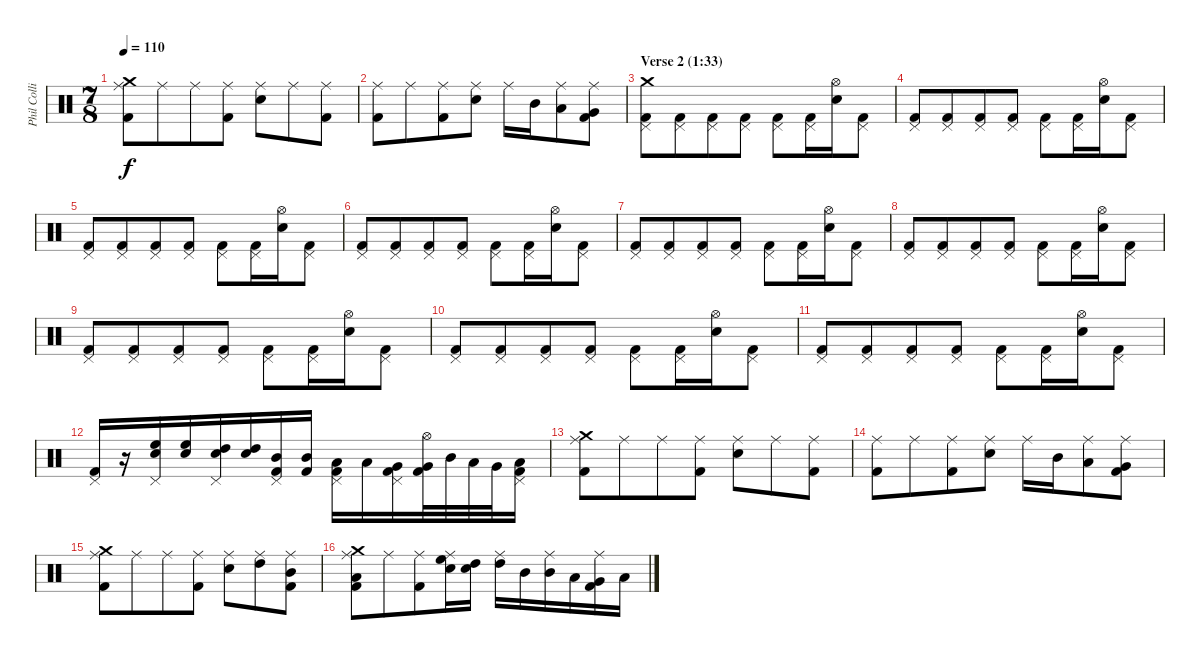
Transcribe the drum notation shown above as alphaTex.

\track ("Phil Collins (drums)" "Phil Colli") {instrument percussion}
\staff {score}
\articulation defaults
\ts (7 8)
\tempo 110
\clef neutral
\ks c
("Ride (middle)" "Crash medium (hit)" "Kick (hit) 2").8{dy f} "Ride (middle)".8 "Ride (middle)".8 ("Ride (middle)" "Kick (hit) 2").8 ("Ride (middle)" "Electric Snare (hit)").8 "Ride (middle)".8 ("Ride (middle)" "Kick (hit) 2").8 |
("Ride (middle)" "Kick (hit) 2").8 "Ride (middle)".8 ("Ride (middle)" "Kick (hit) 2").8 ("Ride (middle)" "Electric Snare (hit)").8 "Ride (middle)".16 "Mid Tom (hit)".16 ("Ride (middle)" "Low Tom (hit)").8 ("Ride (middle)" "Very Low Tom (hit)" "Kick (hit) 2").8 |
\section ("" "Verse 2 (1:33)")
("Crash medium (hit)" "Pedal Hi-Hat (hit)" "Kick (hit) 2").8 ("Pedal Hi-Hat (hit)" "Kick (hit) 2").8 ("Pedal Hi-Hat (hit)" "Kick (hit) 2").8 ("Pedal Hi-Hat (hit)" "Kick (hit) 2").8 ("Pedal Hi-Hat (hit)" "Kick (hit) 2").8 ("Pedal Hi-Hat (hit)" "Kick (hit) 2").16 ("Hi-Hat (open)" "Electric Snare (hit)").16 ("Pedal Hi-Hat (hit)" "Kick (hit) 2").8 |
("Pedal Hi-Hat (hit)" "Kick (hit) 2").8 ("Pedal Hi-Hat (hit)" "Kick (hit) 2").8 ("Pedal Hi-Hat (hit)" "Kick (hit) 2").8 ("Pedal Hi-Hat (hit)" "Kick (hit) 2").8 ("Pedal Hi-Hat (hit)" "Kick (hit) 2").8 ("Pedal Hi-Hat (hit)" "Kick (hit) 2").16 ("Hi-Hat (open)" "Electric Snare (hit)").16 ("Pedal Hi-Hat (hit)" "Kick (hit) 2").8 |
("Pedal Hi-Hat (hit)" "Kick (hit) 2").8 ("Pedal Hi-Hat (hit)" "Kick (hit) 2").8 ("Pedal Hi-Hat (hit)" "Kick (hit) 2").8 ("Pedal Hi-Hat (hit)" "Kick (hit) 2").8 ("Pedal Hi-Hat (hit)" "Kick (hit) 2").8 ("Pedal Hi-Hat (hit)" "Kick (hit) 2").16 ("Hi-Hat (open)" "Electric Snare (hit)").16 ("Pedal Hi-Hat (hit)" "Kick (hit) 2").8 |
("Pedal Hi-Hat (hit)" "Kick (hit) 2").8 ("Pedal Hi-Hat (hit)" "Kick (hit) 2").8 ("Pedal Hi-Hat (hit)" "Kick (hit) 2").8 ("Pedal Hi-Hat (hit)" "Kick (hit) 2").8 ("Pedal Hi-Hat (hit)" "Kick (hit) 2").8 ("Pedal Hi-Hat (hit)" "Kick (hit) 2").16 ("Hi-Hat (open)" "Electric Snare (hit)").16 ("Pedal Hi-Hat (hit)" "Kick (hit) 2").8 |
("Pedal Hi-Hat (hit)" "Kick (hit) 2").8 ("Pedal Hi-Hat (hit)" "Kick (hit) 2").8 ("Pedal Hi-Hat (hit)" "Kick (hit) 2").8 ("Pedal Hi-Hat (hit)" "Kick (hit) 2").8 ("Pedal Hi-Hat (hit)" "Kick (hit) 2").8 ("Pedal Hi-Hat (hit)" "Kick (hit) 2").16 ("Hi-Hat (open)" "Electric Snare (hit)").16 ("Pedal Hi-Hat (hit)" "Kick (hit) 2").8 |
("Pedal Hi-Hat (hit)" "Kick (hit) 2").8 ("Pedal Hi-Hat (hit)" "Kick (hit) 2").8 ("Pedal Hi-Hat (hit)" "Kick (hit) 2").8 ("Pedal Hi-Hat (hit)" "Kick (hit) 2").8 ("Pedal Hi-Hat (hit)" "Kick (hit) 2").8 ("Pedal Hi-Hat (hit)" "Kick (hit) 2").16 ("Hi-Hat (open)" "Electric Snare (hit)").16 ("Pedal Hi-Hat (hit)" "Kick (hit) 2").8 |
("Pedal Hi-Hat (hit)" "Kick (hit) 2").8 ("Pedal Hi-Hat (hit)" "Kick (hit) 2").8 ("Pedal Hi-Hat (hit)" "Kick (hit) 2").8 ("Pedal Hi-Hat (hit)" "Kick (hit) 2").8 ("Pedal Hi-Hat (hit)" "Kick (hit) 2").8 ("Pedal Hi-Hat (hit)" "Kick (hit) 2").16 ("Hi-Hat (open)" "Electric Snare (hit)").16 ("Pedal Hi-Hat (hit)" "Kick (hit) 2").8 |
("Pedal Hi-Hat (hit)" "Kick (hit) 2").8 ("Pedal Hi-Hat (hit)" "Kick (hit) 2").8 ("Pedal Hi-Hat (hit)" "Kick (hit) 2").8 ("Pedal Hi-Hat (hit)" "Kick (hit) 2").8 ("Pedal Hi-Hat (hit)" "Kick (hit) 2").8 ("Pedal Hi-Hat (hit)" "Kick (hit) 2").16 ("Hi-Hat (open)" "Electric Snare (hit)").16 ("Pedal Hi-Hat (hit)" "Kick (hit) 2").8 |
("Pedal Hi-Hat (hit)" "Kick (hit) 2").8 ("Pedal Hi-Hat (hit)" "Kick (hit) 2").8 ("Pedal Hi-Hat (hit)" "Kick (hit) 2").8 ("Pedal Hi-Hat (hit)" "Kick (hit) 2").8 ("Pedal Hi-Hat (hit)" "Kick (hit) 2").8 ("Pedal Hi-Hat (hit)" "Kick (hit) 2").16 ("Hi-Hat (open)" "Electric Snare (hit)").16 ("Pedal Hi-Hat (hit)" "Kick (hit) 2").8 |
("Pedal Hi-Hat (hit)" "Kick (hit) 2").16 r.16 ("High Floor Tom (hit)" "Pedal Hi-Hat (hit)" "Electric Snare (hit)").16 ("High Floor Tom (hit)" "Electric Snare (hit)").16 ("High Tom (hit)" "Pedal Hi-Hat (hit)" "Electric Snare (hit)").16 ("High Tom (hit)" "Electric Snare (hit)").16 ("Mid Tom (hit)" "Pedal Hi-Hat (hit)" "Kick (hit) 2").16 ("Mid Tom (hit)" "Kick (hit) 2").16 ("Low Tom (hit)" "Pedal Hi-Hat (hit)" "Kick (hit) 2").16 "Low Tom (hit)".16 ("Very Low Tom (hit)" "Pedal Hi-Hat (hit)" "Kick (hit) 2").16 ("Very Low Tom (hit)" "Hi-Hat (open)" "Kick (hit) 2").32 "Mid Tom (hit)".32 "Low Tom (hit)".32 "Very Low Tom (hit)".32 ("Low Floor Tom (hit)" "Pedal Hi-Hat (hit)" "Kick (hit) 2").16 |
("Ride (middle)" "Crash medium (hit)" "Kick (hit) 2").8 "Ride (middle)".8 "Ride (middle)".8 ("Ride (middle)" "Kick (hit) 2").8 ("Ride (middle)" "Electric Snare (hit)").8 "Ride (middle)".8 ("Ride (middle)" "Kick (hit) 2").8 |
("Ride (middle)" "Kick (hit) 2").8 "Ride (middle)".8 ("Ride (middle)" "Kick (hit) 2").8 ("Ride (middle)" "Electric Snare (hit)").8 "Ride (middle)".16 "Mid Tom (hit)".16 ("Ride (middle)" "Low Tom (hit)").8 ("Ride (middle)" "Very Low Tom (hit)" "Kick (hit) 2").8 |
("Ride (middle)" "Crash medium (hit)" "Kick (hit) 2").8 "Ride (middle)".8 "Ride (middle)".8 ("Ride (middle)" "Kick (hit) 2").8 ("Ride (middle)" "Electric Snare (hit)").8 ("Ride (middle)" "High Tom (hit)").8 ("Ride (middle)" "Mid Tom (hit)" "Kick (hit) 2").8 |
("Crash medium (hit)" "Ride (middle)" "Low Tom (hit)" "Kick (hit) 2").8 "Ride (middle)".8 ("Ride (middle)" "Kick (hit) 2").8 ("Ride (middle)" "High Floor Tom (hit)" "Electric Snare (hit)").16 ("High Tom (hit)" "Electric Snare (hit)").16 ("Ride (middle)" "High Tom (hit)").16 "Mid Tom (hit)".16 ("Ride (middle)" "Mid Tom (hit)").16 "Low Tom (hit)".16 ("Ride (middle)" "Very Low Tom (hit)" "Kick (hit) 2").16 "Low Floor Tom (hit)".16
